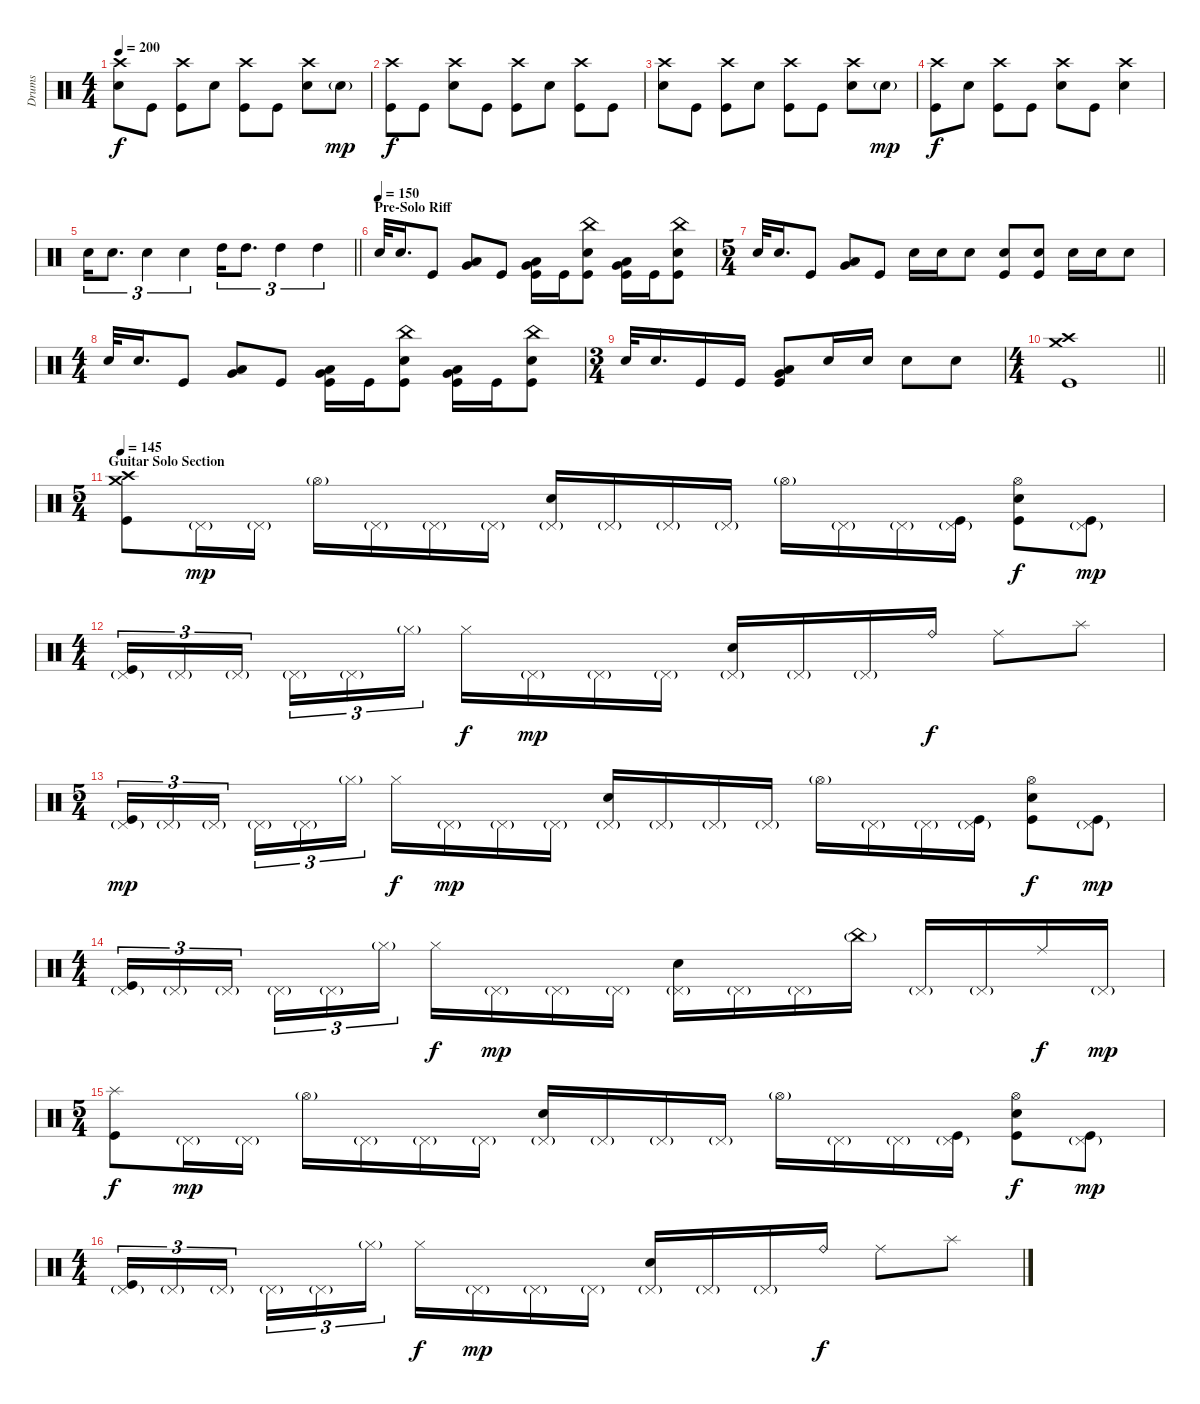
\track ("Drums" "Drums") {instrument percussion}
\staff {score}
\articulation defaults
\ts (4 4)
\tempo 200
\clef neutral
\ks c
("Crash high (hit)" "Electric Snare (hit)").8{dy f} "Kick (hit)".8 ("Crash high (hit)" "Kick (hit)").8 "Electric Snare (hit)".8 ("Crash high (hit)" "Kick (hit)").8 "Kick (hit)".8 ("Crash high (hit)" "Electric Snare (hit)").8 "Electric Snare (hit)"{g}.8{dy mp} |
("Crash high (hit)" "Kick (hit)").8{dy f} "Kick (hit)".8 ("Crash high (hit)" "Electric Snare (hit)").8 "Kick (hit)".8 ("Crash high (hit)" "Kick (hit)").8 "Electric Snare (hit)".8 ("Crash high (hit)" "Kick (hit)").8 "Kick (hit)".8 |
("Crash high (hit)" "Electric Snare (hit)").8 "Kick (hit)".8 ("Crash high (hit)" "Kick (hit)").8 "Electric Snare (hit)".8 ("Crash high (hit)" "Kick (hit)").8 "Kick (hit)".8 ("Crash high (hit)" "Electric Snare (hit)").8 "Electric Snare (hit)"{g}.8{dy mp} |
("Crash high (hit)" "Kick (hit)").8{dy f} "Electric Snare (hit)".8 ("Crash high (hit)" "Kick (hit)").8 "Kick (hit)".8 ("Crash high (hit)" "Electric Snare (hit)").8 "Kick (hit)".8 ("Crash high (hit)" "Electric Snare (hit)").4 |
\barLineRight lightlight "Electric Snare (hit)".16{tu (3 2)} "Electric Snare (hit)".8{d tu (3 2)} "Electric Snare (hit)".4{tu (3 2)} "Electric Snare (hit)".4{tu (3 2)} "High Tom (hit)".16{tu (3 2)} "High Tom (hit)".8{d tu (3 2)} "High Tom (hit)".4{tu (3 2)} "High Tom (hit)".4{tu (3 2)}
|
\section ("" "Pre-Solo Riff")
\tempo (150)
"Electric Snare (hit)".32 "Electric Snare (hit)".16{d} "Kick (hit)".8 ("Very Low Tom (hit)" "Low Floor Tom (hit)").8 "Kick (hit)".8 ("Very Low Tom (hit)" "Low Floor Tom (hit)" "Kick (hit)").16 "Kick (hit)".16 ("China (hit)" "Electric Snare (hit)" "Kick (hit)").8 ("Very Low Tom (hit)" "Low Floor Tom (hit)" "Kick (hit)").16 "Kick (hit)".16 ("China (hit)" "Electric Snare (hit)" "Kick (hit)").8 |
\ts (5 4)
"Electric Snare (hit)".32 "Electric Snare (hit)".16{d} "Kick (hit)".8 ("Very Low Tom (hit)" "Low Floor Tom (hit)").8 "Kick (hit)".8 "Electric Snare (hit)".16 "Electric Snare (hit)".16 "Electric Snare (hit)".8 ("Electric Snare (hit)" "Kick (hit)").8 ("Electric Snare (hit)" "Kick (hit)").8 "Electric Snare (hit)".16 "Electric Snare (hit)".16 "Electric Snare (hit)".8 |
\ts (4 4)
"Electric Snare (hit)".32 "Electric Snare (hit)".16{d} "Kick (hit)".8 ("Very Low Tom (hit)" "Low Floor Tom (hit)").8 "Kick (hit)".8 ("Very Low Tom (hit)" "Low Floor Tom (hit)" "Kick (hit)").16 "Kick (hit)".16 ("China (hit)" "Electric Snare (hit)" "Kick (hit)").8 ("Very Low Tom (hit)" "Low Floor Tom (hit)" "Kick (hit)").16 "Kick (hit)".16 ("China (hit)" "Electric Snare (hit)" "Kick (hit)").8 |
\ts (3 4)
"Electric Snare (hit)".32 "Electric Snare (hit)".16{d} "Kick (hit)".16 "Kick (hit)".16 ("Low Tom (hit)" "Very Low Tom (hit)" "Kick (hit)").8 "Electric Snare (hit)".16 "Electric Snare (hit)".16 "Electric Snare (hit)".8 "Electric Snare (hit)".8 |
\ts (4 4)
\barLineRight lightlight
("Crash medium (hit)" "Crash high (hit)" "Kick (hit)").1 |
\ts (5 4)
\section ("" "Guitar Solo Section")
\tempo 145
("Crash medium (hit)" "Crash high (hit)" "Kick (hit)").8 "Pedal Hi-Hat (hit)"{g}.16{dy mp} "Pedal Hi-Hat (hit)"{g}.16 "Hi-Hat (open)"{g}.16 "Pedal Hi-Hat (hit)"{g}.16 "Pedal Hi-Hat (hit)"{g}.16 "Pedal Hi-Hat (hit)"{g}.16 ("Pedal Hi-Hat (hit)"{g} "Electric Snare (hit)").16 "Pedal Hi-Hat (hit)"{g}.16 "Pedal Hi-Hat (hit)"{g}.16 "Pedal Hi-Hat (hit)"{g}.16 "Hi-Hat (open)"{g}.16 "Pedal Hi-Hat (hit)"{g}.16 "Pedal Hi-Hat (hit)"{g}.16 ("Pedal Hi-Hat (hit)"{g} "Kick (hit)").16 ("Hi-Hat (open)" "Electric Snare (hit)" "Kick (hit)").8{dy f} ("Pedal Hi-Hat (hit)"{g} "Kick (hit)").8{dy mp} |
\ts (4 4)
("Pedal Hi-Hat (hit)"{g} "Kick (hit)").16{tu (3 2)} "Pedal Hi-Hat (hit)"{g}.16{tu (3 2)} "Pedal Hi-Hat (hit)"{g}.16{tu (3 2)} "Pedal Hi-Hat (hit)"{g}.16{tu (3 2)} "Pedal Hi-Hat (hit)"{g}.16{tu (3 2)} "Hi-Hat (closed)"{g}.16{tu (3 2)} "Hi-Hat (closed)".16{dy f} "Pedal Hi-Hat (hit)"{g}.16{dy mp} "Pedal Hi-Hat (hit)"{g}.16 "Pedal Hi-Hat (hit)"{g}.16 ("Pedal Hi-Hat (hit)"{g} "Electric Snare (hit)").16 "Pedal Hi-Hat (hit)"{g}.16 "Pedal Hi-Hat (hit)"{g}.16 "Ride (bell)".16{dy f} "Ride (middle)".8 "Splash (hit)".8 |
\ts (5 4)
("Pedal Hi-Hat (hit)"{g} "Kick (hit)").16{tu (3 2) dy mp} "Pedal Hi-Hat (hit)"{g}.16{tu (3 2)} "Pedal Hi-Hat (hit)"{g}.16{tu (3 2)} "Pedal Hi-Hat (hit)"{g}.16{tu (3 2)} "Pedal Hi-Hat (hit)"{g}.16{tu (3 2)} "Hi-Hat (closed)"{g}.16{tu (3 2)} "Hi-Hat (closed)".16{dy f} "Pedal Hi-Hat (hit)"{g}.16{dy mp} "Pedal Hi-Hat (hit)"{g}.16 "Pedal Hi-Hat (hit)"{g}.16 ("Pedal Hi-Hat (hit)"{g} "Electric Snare (hit)").16 "Pedal Hi-Hat (hit)"{g}.16 "Pedal Hi-Hat (hit)"{g}.16 "Pedal Hi-Hat (hit)"{g}.16 "Hi-Hat (open)"{g}.16 "Pedal Hi-Hat (hit)"{g}.16 "Pedal Hi-Hat (hit)"{g}.16 ("Pedal Hi-Hat (hit)"{g} "Kick (hit)").16 ("Hi-Hat (open)" "Electric Snare (hit)" "Kick (hit)").8{dy f} ("Pedal Hi-Hat (hit)"{g} "Kick (hit)").8{dy mp} |
\ts (4 4)
("Pedal Hi-Hat (hit)"{g} "Kick (hit)").16{tu (3 2)} "Pedal Hi-Hat (hit)"{g}.16{tu (3 2)} "Pedal Hi-Hat (hit)"{g}.16{tu (3 2)} "Pedal Hi-Hat (hit)"{g}.16{tu (3 2)} "Pedal Hi-Hat (hit)"{g}.16{tu (3 2)} "Hi-Hat (closed)"{g}.16{tu (3 2)} "Hi-Hat (closed)".16{dy f} "Pedal Hi-Hat (hit)"{g}.16{dy mp} "Pedal Hi-Hat (hit)"{g}.16 "Pedal Hi-Hat (hit)"{g}.16 ("Pedal Hi-Hat (hit)"{g} "Electric Snare (hit)").16 "Pedal Hi-Hat (hit)"{g}.16 "Pedal Hi-Hat (hit)"{g}.16 "China (hit)"{g}.16 "Pedal Hi-Hat (hit)"{g}.16 "Pedal Hi-Hat (hit)"{g}.16 "Ride (middle)".16{dy f} "Pedal Hi-Hat (hit)"{g}.16{dy mp} |
\ts (5 4)
("Splash (hit)" "Kick (hit)").8{dy f} "Pedal Hi-Hat (hit)"{g}.16{dy mp} "Pedal Hi-Hat (hit)"{g}.16 "Hi-Hat (open)"{g}.16 "Pedal Hi-Hat (hit)"{g}.16 "Pedal Hi-Hat (hit)"{g}.16 "Pedal Hi-Hat (hit)"{g}.16 ("Pedal Hi-Hat (hit)"{g} "Electric Snare (hit)").16 "Pedal Hi-Hat (hit)"{g}.16 "Pedal Hi-Hat (hit)"{g}.16 "Pedal Hi-Hat (hit)"{g}.16 "Hi-Hat (open)"{g}.16 "Pedal Hi-Hat (hit)"{g}.16 "Pedal Hi-Hat (hit)"{g}.16 ("Pedal Hi-Hat (hit)"{g} "Kick (hit)").16 ("Hi-Hat (open)" "Electric Snare (hit)" "Kick (hit)").8{dy f} ("Pedal Hi-Hat (hit)"{g} "Kick (hit)").8{dy mp} |
\ts (4 4)
("Pedal Hi-Hat (hit)"{g} "Kick (hit)").16{tu (3 2)} "Pedal Hi-Hat (hit)"{g}.16{tu (3 2)} "Pedal Hi-Hat (hit)"{g}.16{tu (3 2)} "Pedal Hi-Hat (hit)"{g}.16{tu (3 2)} "Pedal Hi-Hat (hit)"{g}.16{tu (3 2)} "Hi-Hat (closed)"{g}.16{tu (3 2)} "Hi-Hat (closed)".16{dy f} "Pedal Hi-Hat (hit)"{g}.16{dy mp} "Pedal Hi-Hat (hit)"{g}.16 "Pedal Hi-Hat (hit)"{g}.16 ("Pedal Hi-Hat (hit)"{g} "Electric Snare (hit)").16 "Pedal Hi-Hat (hit)"{g}.16 "Pedal Hi-Hat (hit)"{g}.16 "Ride (bell)".16{dy f} "Ride (middle)".8 "Splash (hit)".8
